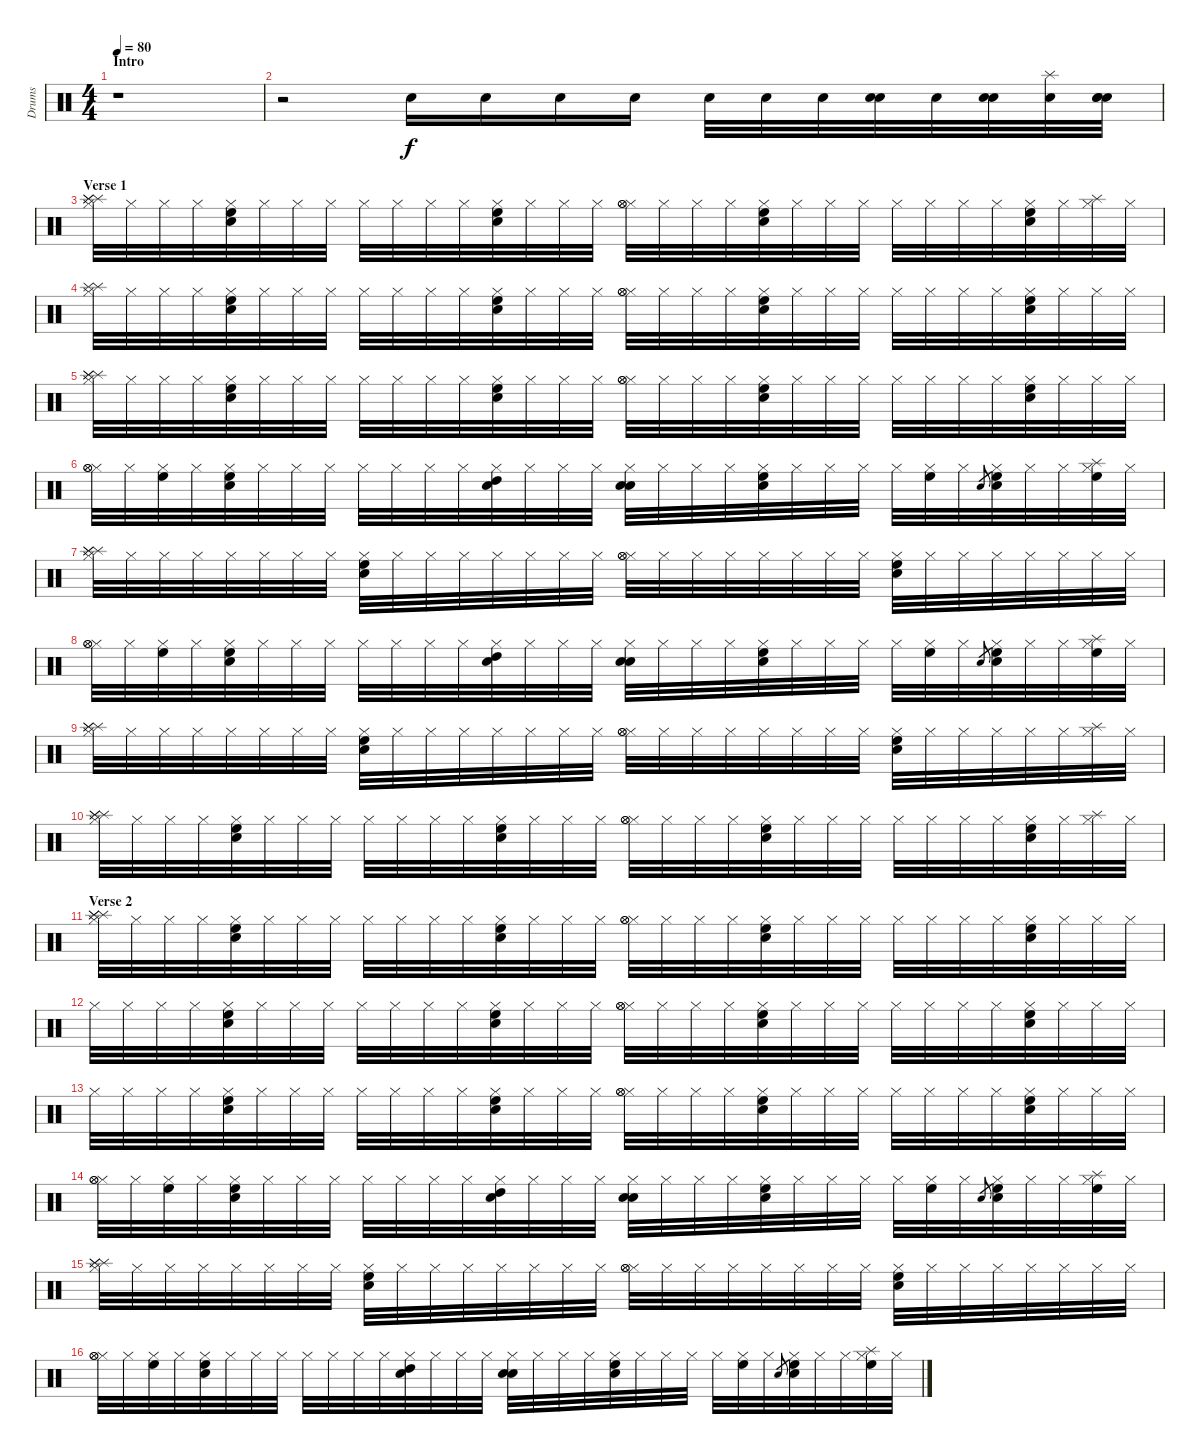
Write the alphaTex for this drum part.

\track ("Drums" "Drums") {instrument percussion}
\staff {score}
\articulation defaults
\ts (4 4)
\section ("" "Intro")
\tempo 80
\clef neutral
\ks c
r.1{dy f} |
r.2 "Snare (hit) 2".16 "Snare (hit) 2".16 "Snare (hit) 2".16 "Snare (hit) 2".16 "Snare (hit) 2".32 "Snare (hit) 2".32 "Snare (hit) 2".32 ("Snare (hit) 2" "Snare (hit) 2").32 "Snare (hit) 2".32 ("Snare (hit) 2" "Snare (hit) 2").32 ("Snare (hit) 2" "Splash (hit)").32 ("Snare (hit) 2" "Snare (hit) 2" "Snare (hit) 2").32 |
\section ("" "Verse 1")
("Hi-Hat (closed)" "Splash (hit)" "Splash (hit)" "Splash (hit)").32 "Hi-Hat (closed)".32 "Hi-Hat (closed)".32 "Hi-Hat (closed)".32 ("Hi-Hat (closed)" "Snare (hit) 2" "High Floor Tom (hit)").32 "Hi-Hat (closed)".32 "Hi-Hat (closed)".32 "Hi-Hat (closed)".32 "Hi-Hat (closed)".32 "Hi-Hat (closed)".32 "Hi-Hat (closed)".32 "Hi-Hat (closed)".32 ("Hi-Hat (closed)" "Snare (hit) 2" "High Floor Tom (hit)").32 "Hi-Hat (closed)".32 "Hi-Hat (closed)".32 "Hi-Hat (closed)".32 ("Hi-Hat (closed)" "Hi-Hat (open)" "Hi-Hat (open)").32 "Hi-Hat (closed)".32 "Hi-Hat (closed)".32 "Hi-Hat (closed)".32 ("Hi-Hat (closed)" "Snare (hit) 2" "High Floor Tom (hit)").32 "Hi-Hat (closed)".32 "Hi-Hat (closed)".32 "Hi-Hat (closed)".32 "Hi-Hat (closed)".32 "Hi-Hat (closed)".32 "Hi-Hat (closed)".32 "Hi-Hat (closed)".32 ("Hi-Hat (closed)" "Snare (hit) 2" "High Floor Tom (hit)").32 "Hi-Hat (closed)".32 ("Hi-Hat (closed)" "Splash (hit)").32 "Hi-Hat (closed)".32 |
("Hi-Hat (closed)" "Splash (hit)" "Splash (hit)").32 "Hi-Hat (closed)".32 "Hi-Hat (closed)".32 "Hi-Hat (closed)".32 ("Hi-Hat (closed)" "Snare (hit) 2" "High Floor Tom (hit)").32 "Hi-Hat (closed)".32 "Hi-Hat (closed)".32 "Hi-Hat (closed)".32 "Hi-Hat (closed)".32 "Hi-Hat (closed)".32 "Hi-Hat (closed)".32 "Hi-Hat (closed)".32 ("Hi-Hat (closed)" "Snare (hit) 2" "High Floor Tom (hit)").32 "Hi-Hat (closed)".32 "Hi-Hat (closed)".32 "Hi-Hat (closed)".32 ("Hi-Hat (closed)" "Hi-Hat (open)" "Hi-Hat (open)").32 "Hi-Hat (closed)".32 "Hi-Hat (closed)".32 "Hi-Hat (closed)".32 ("Hi-Hat (closed)" "Snare (hit) 2" "High Floor Tom (hit)").32 "Hi-Hat (closed)".32 "Hi-Hat (closed)".32 "Hi-Hat (closed)".32 "Hi-Hat (closed)".32 "Hi-Hat (closed)".32 "Hi-Hat (closed)".32 "Hi-Hat (closed)".32 ("Hi-Hat (closed)" "Snare (hit) 2" "High Floor Tom (hit)").32 "Hi-Hat (closed)".32 "Hi-Hat (closed)".32 "Hi-Hat (closed)".32 |
("Hi-Hat (closed)" "Splash (hit)" "Splash (hit)" "Splash (hit)").32 "Hi-Hat (closed)".32 "Hi-Hat (closed)".32 "Hi-Hat (closed)".32 ("Hi-Hat (closed)" "Snare (hit) 2" "High Floor Tom (hit)").32 "Hi-Hat (closed)".32 "Hi-Hat (closed)".32 "Hi-Hat (closed)".32 "Hi-Hat (closed)".32 "Hi-Hat (closed)".32 "Hi-Hat (closed)".32 "Hi-Hat (closed)".32 ("Hi-Hat (closed)" "Snare (hit) 2" "High Floor Tom (hit)").32 "Hi-Hat (closed)".32 "Hi-Hat (closed)".32 "Hi-Hat (closed)".32 ("Hi-Hat (closed)" "Hi-Hat (open)" "Hi-Hat (open)").32 "Hi-Hat (closed)".32 "Hi-Hat (closed)".32 "Hi-Hat (closed)".32 ("Hi-Hat (closed)" "Snare (hit) 2" "High Floor Tom (hit)").32 "Hi-Hat (closed)".32 "Hi-Hat (closed)".32 "Hi-Hat (closed)".32 "Hi-Hat (closed)".32 "Hi-Hat (closed)".32 "Hi-Hat (closed)".32 "Hi-Hat (closed)".32 ("Hi-Hat (closed)" "Snare (hit) 2" "High Floor Tom (hit)").32 "Hi-Hat (closed)".32 "Hi-Hat (closed)".32 "Hi-Hat (closed)".32 |
("Hi-Hat (closed)" "Hi-Hat (open)" "Hi-Hat (open)").32 "Hi-Hat (closed)".32 ("Hi-Hat (closed)" "High Floor Tom (hit)").32 "Hi-Hat (closed)".32 ("Hi-Hat (closed)" "Snare (hit) 2" "High Floor Tom (hit)").32 "Hi-Hat (closed)".32 "Hi-Hat (closed)".32 "Hi-Hat (closed)".32 "Hi-Hat (closed)".32 "Hi-Hat (closed)".32 "Hi-Hat (closed)".32 "Hi-Hat (closed)".32 ("Hi-Hat (closed)" "Snare (hit) 2" "High Tom (hit)").32 "Hi-Hat (closed)".32 "Hi-Hat (closed)".32 "Hi-Hat (closed)".32 ("Hi-Hat (closed)" "Snare (hit) 2" "Snare (hit) 2").32 "Hi-Hat (closed)".32 "Hi-Hat (closed)".32 "Hi-Hat (closed)".32 ("Hi-Hat (closed)" "Snare (hit) 2" "High Floor Tom (hit)").32 "Hi-Hat (closed)".32 "Hi-Hat (closed)".32 "Hi-Hat (closed)".32 "Hi-Hat (closed)".32 ("Hi-Hat (closed)" "High Floor Tom (hit)").32 "Hi-Hat (closed)".32 "Snare (hit) 2".8{gr} ("Hi-Hat (closed)" "Snare (hit) 2" "High Floor Tom (hit)").32 "Hi-Hat (closed)".32 "Hi-Hat (closed)".32 ("Hi-Hat (closed)" "Splash (hit)" "High Floor Tom (hit)").32 "Hi-Hat (closed)".32 |
("Hi-Hat (closed)" "Splash (hit)" "Splash (hit)" "Splash (hit)").32 "Hi-Hat (closed)".32 "Hi-Hat (closed)".32 "Hi-Hat (closed)".32 "Hi-Hat (closed)".32 "Hi-Hat (closed)".32 "Hi-Hat (closed)".32 "Hi-Hat (closed)".32 ("Hi-Hat (closed)" "Snare (hit) 2" "High Floor Tom (hit)").32 "Hi-Hat (closed)".32 "Hi-Hat (closed)".32 "Hi-Hat (closed)".32 "Hi-Hat (closed)".32 "Hi-Hat (closed)".32 "Hi-Hat (closed)".32 "Hi-Hat (closed)".32 ("Hi-Hat (closed)" "Hi-Hat (open)" "Hi-Hat (open)").32 "Hi-Hat (closed)".32 "Hi-Hat (closed)".32 "Hi-Hat (closed)".32 "Hi-Hat (closed)".32 "Hi-Hat (closed)".32 "Hi-Hat (closed)".32 "Hi-Hat (closed)".32 ("Hi-Hat (closed)" "Snare (hit) 2" "High Floor Tom (hit)").32 "Hi-Hat (closed)".32 "Hi-Hat (closed)".32 "Hi-Hat (closed)".32 "Hi-Hat (closed)".32 "Hi-Hat (closed)".32 "Hi-Hat (closed)".32 "Hi-Hat (closed)".32 |
("Hi-Hat (closed)" "Hi-Hat (open)" "Hi-Hat (open)").32 "Hi-Hat (closed)".32 ("Hi-Hat (closed)" "High Floor Tom (hit)").32 "Hi-Hat (closed)".32 ("Hi-Hat (closed)" "Snare (hit) 2" "High Floor Tom (hit)").32 "Hi-Hat (closed)".32 "Hi-Hat (closed)".32 "Hi-Hat (closed)".32 "Hi-Hat (closed)".32 "Hi-Hat (closed)".32 "Hi-Hat (closed)".32 "Hi-Hat (closed)".32 ("Hi-Hat (closed)" "Snare (hit) 2" "High Tom (hit)").32 "Hi-Hat (closed)".32 "Hi-Hat (closed)".32 "Hi-Hat (closed)".32 ("Hi-Hat (closed)" "Snare (hit) 2" "Snare (hit) 2").32 "Hi-Hat (closed)".32 "Hi-Hat (closed)".32 "Hi-Hat (closed)".32 ("Hi-Hat (closed)" "Snare (hit) 2" "High Floor Tom (hit)").32 "Hi-Hat (closed)".32 "Hi-Hat (closed)".32 "Hi-Hat (closed)".32 "Hi-Hat (closed)".32 ("Hi-Hat (closed)" "High Floor Tom (hit)").32 "Hi-Hat (closed)".32 "Snare (hit) 2".8{gr} ("Hi-Hat (closed)" "Snare (hit) 2" "High Floor Tom (hit)").32 "Hi-Hat (closed)".32 "Hi-Hat (closed)".32 ("Hi-Hat (closed)" "Splash (hit)" "High Floor Tom (hit)").32 "Hi-Hat (closed)".32 |
("Hi-Hat (closed)" "Splash (hit)" "Splash (hit)" "Splash (hit)").32 "Hi-Hat (closed)".32 "Hi-Hat (closed)".32 "Hi-Hat (closed)".32 "Hi-Hat (closed)".32 "Hi-Hat (closed)".32 "Hi-Hat (closed)".32 "Hi-Hat (closed)".32 ("Hi-Hat (closed)" "Snare (hit) 2" "High Floor Tom (hit)").32 "Hi-Hat (closed)".32 "Hi-Hat (closed)".32 "Hi-Hat (closed)".32 "Hi-Hat (closed)".32 "Hi-Hat (closed)".32 "Hi-Hat (closed)".32 "Hi-Hat (closed)".32 ("Hi-Hat (closed)" "Hi-Hat (open)" "Hi-Hat (open)").32 "Hi-Hat (closed)".32 "Hi-Hat (closed)".32 "Hi-Hat (closed)".32 "Hi-Hat (closed)".32 "Hi-Hat (closed)".32 "Hi-Hat (closed)".32 "Hi-Hat (closed)".32 ("Hi-Hat (closed)" "Snare (hit) 2" "High Floor Tom (hit)").32 "Hi-Hat (closed)".32 "Hi-Hat (closed)".32 "Hi-Hat (closed)".32 "Hi-Hat (closed)".32 "Hi-Hat (closed)".32 ("Hi-Hat (closed)" "Splash (hit)").32 "Hi-Hat (closed)".32 |
("Hi-Hat (closed)" "Splash (hit)" "Splash (hit)" "Splash (hit)").32 "Hi-Hat (closed)".32 "Hi-Hat (closed)".32 "Hi-Hat (closed)".32 ("Hi-Hat (closed)" "Snare (hit) 2" "High Floor Tom (hit)").32 "Hi-Hat (closed)".32 "Hi-Hat (closed)".32 "Hi-Hat (closed)".32 "Hi-Hat (closed)".32 "Hi-Hat (closed)".32 "Hi-Hat (closed)".32 "Hi-Hat (closed)".32 ("Hi-Hat (closed)" "Snare (hit) 2" "High Floor Tom (hit)").32 "Hi-Hat (closed)".32 "Hi-Hat (closed)".32 "Hi-Hat (closed)".32 ("Hi-Hat (closed)" "Hi-Hat (open)" "Hi-Hat (open)").32 "Hi-Hat (closed)".32 "Hi-Hat (closed)".32 "Hi-Hat (closed)".32 ("Hi-Hat (closed)" "Snare (hit) 2" "High Floor Tom (hit)").32 "Hi-Hat (closed)".32 "Hi-Hat (closed)".32 "Hi-Hat (closed)".32 "Hi-Hat (closed)".32 "Hi-Hat (closed)".32 "Hi-Hat (closed)".32 "Hi-Hat (closed)".32 ("Hi-Hat (closed)" "Snare (hit) 2" "High Floor Tom (hit)").32 "Hi-Hat (closed)".32 ("Hi-Hat (closed)" "Splash (hit)").32 "Hi-Hat (closed)".32 |
\section ("" "Verse 2")
("Hi-Hat (closed)" "Splash (hit)" "Splash (hit)" "Splash (hit)").32 "Hi-Hat (closed)".32 "Hi-Hat (closed)".32 "Hi-Hat (closed)".32 ("Hi-Hat (closed)" "Snare (hit) 2" "High Floor Tom (hit)").32 "Hi-Hat (closed)".32 "Hi-Hat (closed)".32 "Hi-Hat (closed)".32 "Hi-Hat (closed)".32 "Hi-Hat (closed)".32 "Hi-Hat (closed)".32 "Hi-Hat (closed)".32 ("Hi-Hat (closed)" "Snare (hit) 2" "High Floor Tom (hit)").32 "Hi-Hat (closed)".32 "Hi-Hat (closed)".32 "Hi-Hat (closed)".32 ("Hi-Hat (closed)" "Hi-Hat (open)" "Hi-Hat (open)").32 "Hi-Hat (closed)".32 "Hi-Hat (closed)".32 "Hi-Hat (closed)".32 ("Hi-Hat (closed)" "Snare (hit) 2" "High Floor Tom (hit)").32 "Hi-Hat (closed)".32 "Hi-Hat (closed)".32 "Hi-Hat (closed)".32 "Hi-Hat (closed)".32 "Hi-Hat (closed)".32 "Hi-Hat (closed)".32 "Hi-Hat (closed)".32 ("Hi-Hat (closed)" "Snare (hit) 2" "High Floor Tom (hit)").32 "Hi-Hat (closed)".32 "Hi-Hat (closed)".32 "Hi-Hat (closed)".32 |
"Hi-Hat (closed)".32 "Hi-Hat (closed)".32 "Hi-Hat (closed)".32 "Hi-Hat (closed)".32 ("Hi-Hat (closed)" "Snare (hit) 2" "High Floor Tom (hit)").32 "Hi-Hat (closed)".32 "Hi-Hat (closed)".32 "Hi-Hat (closed)".32 "Hi-Hat (closed)".32 "Hi-Hat (closed)".32 "Hi-Hat (closed)".32 "Hi-Hat (closed)".32 ("Hi-Hat (closed)" "Snare (hit) 2" "High Floor Tom (hit)").32 "Hi-Hat (closed)".32 "Hi-Hat (closed)".32 "Hi-Hat (closed)".32 ("Hi-Hat (closed)" "Hi-Hat (open)" "Hi-Hat (open)").32 "Hi-Hat (closed)".32 "Hi-Hat (closed)".32 "Hi-Hat (closed)".32 ("Hi-Hat (closed)" "Snare (hit) 2" "High Floor Tom (hit)").32 "Hi-Hat (closed)".32 "Hi-Hat (closed)".32 "Hi-Hat (closed)".32 "Hi-Hat (closed)".32 "Hi-Hat (closed)".32 "Hi-Hat (closed)".32 "Hi-Hat (closed)".32 ("Hi-Hat (closed)" "Snare (hit) 2" "High Floor Tom (hit)").32 "Hi-Hat (closed)".32 "Hi-Hat (closed)".32 "Hi-Hat (closed)".32 |
"Hi-Hat (closed)".32 "Hi-Hat (closed)".32 "Hi-Hat (closed)".32 "Hi-Hat (closed)".32 ("Hi-Hat (closed)" "Snare (hit) 2" "High Floor Tom (hit)").32 "Hi-Hat (closed)".32 "Hi-Hat (closed)".32 "Hi-Hat (closed)".32 "Hi-Hat (closed)".32 "Hi-Hat (closed)".32 "Hi-Hat (closed)".32 "Hi-Hat (closed)".32 ("Hi-Hat (closed)" "Snare (hit) 2" "High Floor Tom (hit)").32 "Hi-Hat (closed)".32 "Hi-Hat (closed)".32 "Hi-Hat (closed)".32 ("Hi-Hat (closed)" "Hi-Hat (open)" "Hi-Hat (open)").32 "Hi-Hat (closed)".32 "Hi-Hat (closed)".32 "Hi-Hat (closed)".32 ("Hi-Hat (closed)" "Snare (hit) 2" "High Floor Tom (hit)").32 "Hi-Hat (closed)".32 "Hi-Hat (closed)".32 "Hi-Hat (closed)".32 "Hi-Hat (closed)".32 "Hi-Hat (closed)".32 "Hi-Hat (closed)".32 "Hi-Hat (closed)".32 ("Hi-Hat (closed)" "Snare (hit) 2" "High Floor Tom (hit)").32 "Hi-Hat (closed)".32 "Hi-Hat (closed)".32 "Hi-Hat (closed)".32 |
("Hi-Hat (closed)" "Hi-Hat (open)" "Hi-Hat (open)").32 "Hi-Hat (closed)".32 ("Hi-Hat (closed)" "High Floor Tom (hit)").32 "Hi-Hat (closed)".32 ("Hi-Hat (closed)" "Snare (hit) 2" "High Floor Tom (hit)").32 "Hi-Hat (closed)".32 "Hi-Hat (closed)".32 "Hi-Hat (closed)".32 "Hi-Hat (closed)".32 "Hi-Hat (closed)".32 "Hi-Hat (closed)".32 "Hi-Hat (closed)".32 ("Hi-Hat (closed)" "Snare (hit) 2" "High Tom (hit)").32 "Hi-Hat (closed)".32 "Hi-Hat (closed)".32 "Hi-Hat (closed)".32 ("Hi-Hat (closed)" "Snare (hit) 2" "Snare (hit) 2").32 "Hi-Hat (closed)".32 "Hi-Hat (closed)".32 "Hi-Hat (closed)".32 ("Hi-Hat (closed)" "Snare (hit) 2" "High Floor Tom (hit)").32 "Hi-Hat (closed)".32 "Hi-Hat (closed)".32 "Hi-Hat (closed)".32 "Hi-Hat (closed)".32 ("Hi-Hat (closed)" "High Floor Tom (hit)").32 "Hi-Hat (closed)".32 "Snare (hit) 2".8{gr} ("Hi-Hat (closed)" "Snare (hit) 2" "High Floor Tom (hit)").32 "Hi-Hat (closed)".32 "Hi-Hat (closed)".32 ("Hi-Hat (closed)" "Splash (hit)" "High Floor Tom (hit)").32 "Hi-Hat (closed)".32 |
("Hi-Hat (closed)" "Splash (hit)" "Splash (hit)" "Splash (hit)").32 "Hi-Hat (closed)".32 "Hi-Hat (closed)".32 "Hi-Hat (closed)".32 "Hi-Hat (closed)".32 "Hi-Hat (closed)".32 "Hi-Hat (closed)".32 "Hi-Hat (closed)".32 ("Hi-Hat (closed)" "Snare (hit) 2" "High Floor Tom (hit)").32 "Hi-Hat (closed)".32 "Hi-Hat (closed)".32 "Hi-Hat (closed)".32 "Hi-Hat (closed)".32 "Hi-Hat (closed)".32 "Hi-Hat (closed)".32 "Hi-Hat (closed)".32 ("Hi-Hat (closed)" "Hi-Hat (open)" "Hi-Hat (open)").32 "Hi-Hat (closed)".32 "Hi-Hat (closed)".32 "Hi-Hat (closed)".32 "Hi-Hat (closed)".32 "Hi-Hat (closed)".32 "Hi-Hat (closed)".32 "Hi-Hat (closed)".32 ("Hi-Hat (closed)" "Snare (hit) 2" "High Floor Tom (hit)").32 "Hi-Hat (closed)".32 "Hi-Hat (closed)".32 "Hi-Hat (closed)".32 "Hi-Hat (closed)".32 "Hi-Hat (closed)".32 "Hi-Hat (closed)".32 "Hi-Hat (closed)".32 |
("Hi-Hat (closed)" "Hi-Hat (open)" "Hi-Hat (open)").32 "Hi-Hat (closed)".32 ("Hi-Hat (closed)" "High Floor Tom (hit)").32 "Hi-Hat (closed)".32 ("Hi-Hat (closed)" "Snare (hit) 2" "High Floor Tom (hit)").32 "Hi-Hat (closed)".32 "Hi-Hat (closed)".32 "Hi-Hat (closed)".32 "Hi-Hat (closed)".32 "Hi-Hat (closed)".32 "Hi-Hat (closed)".32 "Hi-Hat (closed)".32 ("Hi-Hat (closed)" "Snare (hit) 2" "High Tom (hit)").32 "Hi-Hat (closed)".32 "Hi-Hat (closed)".32 "Hi-Hat (closed)".32 ("Hi-Hat (closed)" "Snare (hit) 2" "Snare (hit) 2").32 "Hi-Hat (closed)".32 "Hi-Hat (closed)".32 "Hi-Hat (closed)".32 ("Hi-Hat (closed)" "Snare (hit) 2" "High Floor Tom (hit)").32 "Hi-Hat (closed)".32 "Hi-Hat (closed)".32 "Hi-Hat (closed)".32 "Hi-Hat (closed)".32 ("Hi-Hat (closed)" "High Floor Tom (hit)").32 "Hi-Hat (closed)".32 "Snare (hit) 2".8{gr} ("Hi-Hat (closed)" "Snare (hit) 2" "High Floor Tom (hit)").32 "Hi-Hat (closed)".32 "Hi-Hat (closed)".32 ("Hi-Hat (closed)" "Splash (hit)" "High Floor Tom (hit)").32 "Hi-Hat (closed)".32
